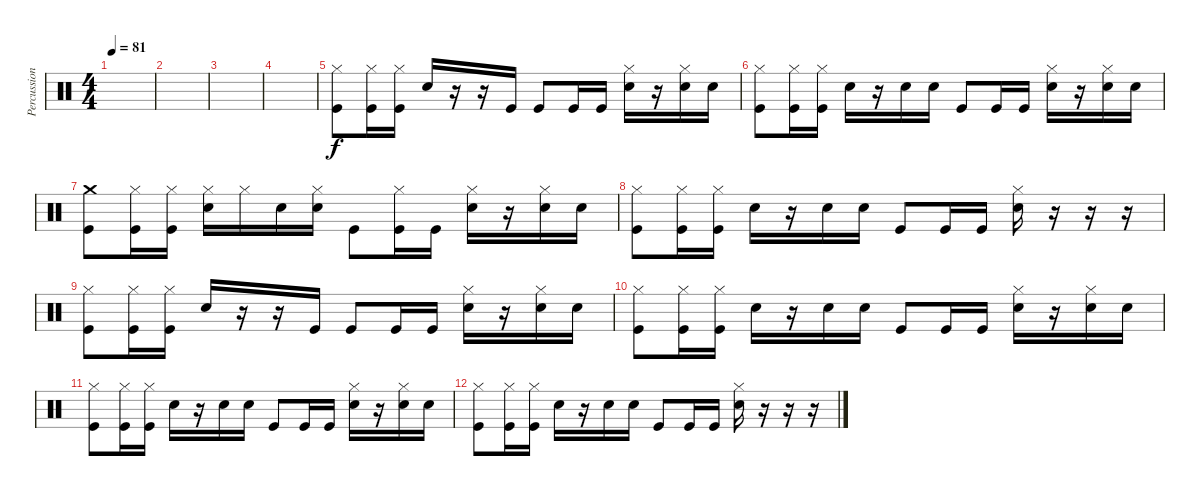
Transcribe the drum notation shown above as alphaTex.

\track ("Percussion" "Percussion") {instrument percussion}
\staff {score}
\articulation defaults
\ts (4 4)
\tempo 81
\clef neutral
\ks c
|
|
|
|
("Hi-Hat (closed)" "Kick (hit)").8 ("Hi-Hat (closed)" "Kick (hit)").16 ("Hi-Hat (closed)" "Kick (hit)").16 "Snare (hit) 2".16 r.16 r.16 "Kick (hit)".16 "Kick (hit)".8 "Kick (hit)".16 "Kick (hit)".16 ("Hi-Hat (closed)" "Snare (hit) 2").16 r.16 ("Hi-Hat (closed)" "Snare (hit) 2").16 "Snare (hit) 2".16 |
("Hi-Hat (closed)" "Kick (hit)").8 ("Hi-Hat (closed)" "Kick (hit)").16 ("Hi-Hat (closed)" "Kick (hit)").16 "Snare (hit) 2".16 r.16 "Snare (hit) 2".16 "Snare (hit) 2".16 "Kick (hit)".8 "Kick (hit)".16 "Kick (hit)".16 ("Hi-Hat (closed)" "Snare (hit) 2").16 r.16 ("Hi-Hat (closed)" "Snare (hit) 2").16 "Snare (hit) 2".16 |
("Crash medium (hit)" "Kick (hit)").8 ("Hi-Hat (closed)" "Kick (hit)").16 ("Hi-Hat (closed)" "Kick (hit)").16 ("Hi-Hat (closed)" "Snare (hit) 2").16 "Hi-Hat (closed)".16 "Snare (hit) 2".16 ("Hi-Hat (closed)" "Snare (hit) 2").16 "Kick (hit)".8 ("Hi-Hat (closed)" "Kick (hit)").16 "Kick (hit)".16 ("Hi-Hat (closed)" "Snare (hit) 2").16 r.16 ("Hi-Hat (closed)" "Snare (hit) 2").16 "Snare (hit) 2".16 |
("Hi-Hat (closed)" "Kick (hit)").8 ("Hi-Hat (closed)" "Kick (hit)").16 ("Hi-Hat (closed)" "Kick (hit)").16 "Snare (hit) 2".16 r.16 "Snare (hit) 2".16 "Snare (hit) 2".16 "Kick (hit)".8 "Kick (hit)".16 "Kick (hit)".16 ("Hi-Hat (closed)" "Snare (hit) 2").16 r.16 r.16 r.16 |
("Hi-Hat (closed)" "Kick (hit)").8 ("Hi-Hat (closed)" "Kick (hit)").16 ("Hi-Hat (closed)" "Kick (hit)").16 "Snare (hit) 2".16 r.16 r.16 "Kick (hit)".16 "Kick (hit)".8 "Kick (hit)".16 "Kick (hit)".16 ("Hi-Hat (closed)" "Snare (hit) 2").16 r.16 ("Hi-Hat (closed)" "Snare (hit) 2").16 "Snare (hit) 2".16 |
("Hi-Hat (closed)" "Kick (hit)").8 ("Hi-Hat (closed)" "Kick (hit)").16 ("Hi-Hat (closed)" "Kick (hit)").16 "Snare (hit) 2".16 r.16 "Snare (hit) 2".16 "Snare (hit) 2".16 "Kick (hit)".8 "Kick (hit)".16 "Kick (hit)".16 ("Hi-Hat (closed)" "Snare (hit) 2").16 r.16 ("Hi-Hat (closed)" "Snare (hit) 2").16 "Snare (hit) 2".16 |
("Hi-Hat (closed)" "Kick (hit)").8 ("Hi-Hat (closed)" "Kick (hit)").16 ("Hi-Hat (closed)" "Kick (hit)").16 "Snare (hit) 2".16 r.16 "Snare (hit) 2".16 "Snare (hit) 2".16 "Kick (hit)".8 "Kick (hit)".16 "Kick (hit)".16 ("Hi-Hat (closed)" "Snare (hit) 2").16 r.16 ("Hi-Hat (closed)" "Snare (hit) 2").16 "Snare (hit) 2".16 |
("Hi-Hat (closed)" "Kick (hit)").8 ("Hi-Hat (closed)" "Kick (hit)").16 ("Hi-Hat (closed)" "Kick (hit)").16 "Snare (hit) 2".16 r.16 "Snare (hit) 2".16 "Snare (hit) 2".16 "Kick (hit)".8 "Kick (hit)".16 "Kick (hit)".16 ("Hi-Hat (closed)" "Snare (hit) 2").16 r.16 r.16 r.16
